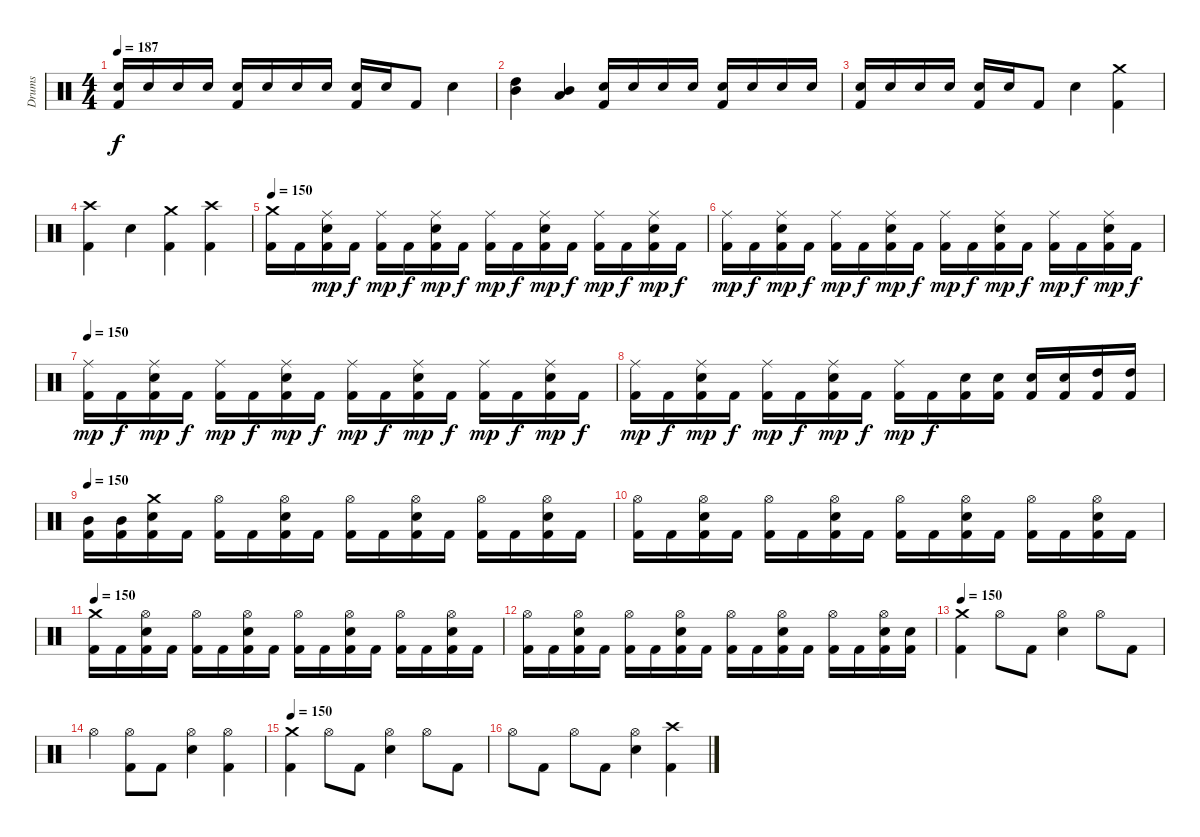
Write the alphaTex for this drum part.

\track ("Drums" "Drums") {instrument percussion}
\staff {score}
\articulation defaults
\ts (4 4)
\tempo 187
\clef neutral
\ks c
("Electric Snare (hit)" "Kick (hit) 2").16{dy f} "Electric Snare (hit)".16 "Electric Snare (hit)".16 "Electric Snare (hit)".16 ("Electric Snare (hit)" "Kick (hit) 2").16 "Electric Snare (hit)".16 "Electric Snare (hit)".16 "Electric Snare (hit)".16 ("Electric Snare (hit)" "Kick (hit) 2").16 "Electric Snare (hit)".16 "Kick (hit) 2".8 "Electric Snare (hit)".4 |
("High Tom (hit)" "Mid Tom (hit)").4 ("Mid Tom (hit)" "Low Tom (hit)").4 ("Electric Snare (hit)" "Kick (hit) 2").16 "Electric Snare (hit)".16 "Electric Snare (hit)".16 "Electric Snare (hit)".16 ("Electric Snare (hit)" "Kick (hit) 2").16 "Electric Snare (hit)".16 "Electric Snare (hit)".16 "Electric Snare (hit)".16 |
("Electric Snare (hit)" "Kick (hit) 2").16 "Electric Snare (hit)".16 "Electric Snare (hit)".16 "Electric Snare (hit)".16 ("Electric Snare (hit)" "Kick (hit) 2").16 "Electric Snare (hit)".16 "Kick (hit) 2".8 "Electric Snare (hit)".4 ("Crash medium (hit)" "Kick (hit) 2").4 |
("Crash high (hit)" "Kick (hit) 2").4 "Electric Snare (hit)".4 ("Crash medium (hit)" "Kick (hit) 2").4 ("Crash high (hit)" "Kick (hit) 2").4 |
\tempo 150
("Crash medium (hit)" "Kick (hit) 2").16 "Kick (hit) 2".16 ("Ride (middle)" "Electric Snare (hit)" "Kick (hit) 2").16{dy mp} "Kick (hit) 2".16{dy f} ("Ride (middle)" "Kick (hit) 2").16{dy mp} "Kick (hit) 2".16{dy f} ("Ride (middle)" "Electric Snare (hit)" "Kick (hit) 2").16{dy mp} "Kick (hit) 2".16{dy f} ("Ride (middle)" "Kick (hit) 2").16{dy mp} "Kick (hit) 2".16{dy f} ("Ride (middle)" "Electric Snare (hit)" "Kick (hit) 2").16{dy mp} "Kick (hit) 2".16{dy f} ("Ride (middle)" "Kick (hit) 2").16{dy mp} "Kick (hit) 2".16{dy f} ("Ride (middle)" "Electric Snare (hit)" "Kick (hit) 2").16{dy mp} "Kick (hit) 2".16{dy f} |
("Ride (middle)" "Kick (hit) 2").16{dy mp} "Kick (hit) 2".16{dy f} ("Ride (middle)" "Electric Snare (hit)" "Kick (hit) 2").16{dy mp} "Kick (hit) 2".16{dy f} ("Ride (middle)" "Kick (hit) 2").16{dy mp} "Kick (hit) 2".16{dy f} ("Ride (middle)" "Electric Snare (hit)" "Kick (hit) 2").16{dy mp} "Kick (hit) 2".16{dy f} ("Ride (middle)" "Kick (hit) 2").16{dy mp} "Kick (hit) 2".16{dy f} ("Ride (middle)" "Electric Snare (hit)" "Kick (hit) 2").16{dy mp} "Kick (hit) 2".16{dy f} ("Ride (middle)" "Kick (hit) 2").16{dy mp} "Kick (hit) 2".16{dy f} ("Ride (middle)" "Electric Snare (hit)" "Kick (hit) 2").16{dy mp} "Kick (hit) 2".16{dy f} |
\tempo 150
("Ride (middle)" "Kick (hit) 2").16{dy mp} "Kick (hit) 2".16{dy f} ("Ride (middle)" "Electric Snare (hit)" "Kick (hit) 2").16{dy mp} "Kick (hit) 2".16{dy f} ("Ride (middle)" "Kick (hit) 2").16{dy mp} "Kick (hit) 2".16{dy f} ("Ride (middle)" "Electric Snare (hit)" "Kick (hit) 2").16{dy mp} "Kick (hit) 2".16{dy f} ("Ride (middle)" "Kick (hit) 2").16{dy mp} "Kick (hit) 2".16{dy f} ("Ride (middle)" "Electric Snare (hit)" "Kick (hit) 2").16{dy mp} "Kick (hit) 2".16{dy f} ("Ride (middle)" "Kick (hit) 2").16{dy mp} "Kick (hit) 2".16{dy f} ("Ride (middle)" "Electric Snare (hit)" "Kick (hit) 2").16{dy mp} "Kick (hit) 2".16{dy f} |
("Ride (middle)" "Kick (hit) 2").16{dy mp} "Kick (hit) 2".16{dy f} ("Ride (middle)" "Electric Snare (hit)" "Kick (hit) 2").16{dy mp} "Kick (hit) 2".16{dy f} ("Ride (middle)" "Kick (hit) 2").16{dy mp} "Kick (hit) 2".16{dy f} ("Ride (middle)" "Electric Snare (hit)" "Kick (hit) 2").16{dy mp} "Kick (hit) 2".16{dy f} ("Ride (middle)" "Kick (hit) 2").16{dy mp} "Kick (hit) 2".16{dy f} ("Electric Snare (hit)" "Kick (hit) 2").16 ("Electric Snare (hit)" "Kick (hit) 2").16 ("Electric Snare (hit)" "Kick (hit) 2").16 ("Electric Snare (hit)" "Kick (hit) 2").16 ("High Tom (hit)" "Kick (hit) 2").16 ("High Tom (hit)" "Kick (hit) 2").16 |
\tempo 150
("Mid Tom (hit)" "Kick (hit) 2").16 ("Mid Tom (hit)" "Kick (hit) 2").16 ("Crash medium (hit)" "Electric Snare (hit)" "Kick (hit) 2").16 "Kick (hit) 2".16 ("Hi-Hat (open)" "Kick (hit) 2").16 "Kick (hit) 2".16 ("Hi-Hat (open)" "Electric Snare (hit)" "Kick (hit) 2").16 "Kick (hit) 2".16 ("Hi-Hat (open)" "Kick (hit) 2").16 "Kick (hit) 2".16 ("Hi-Hat (open)" "Electric Snare (hit)" "Kick (hit) 2").16 "Kick (hit) 2".16 ("Hi-Hat (open)" "Kick (hit) 2").16 "Kick (hit) 2".16 ("Hi-Hat (open)" "Electric Snare (hit)" "Kick (hit) 2").16 "Kick (hit) 2".16 |
("Hi-Hat (open)" "Kick (hit) 2").16 "Kick (hit) 2".16 ("Hi-Hat (open)" "Electric Snare (hit)" "Kick (hit) 2").16 "Kick (hit) 2".16 ("Hi-Hat (open)" "Kick (hit) 2").16 "Kick (hit) 2".16 ("Hi-Hat (open)" "Electric Snare (hit)" "Kick (hit) 2").16 "Kick (hit) 2".16 ("Hi-Hat (open)" "Kick (hit) 2").16 "Kick (hit) 2".16 ("Hi-Hat (open)" "Electric Snare (hit)" "Kick (hit) 2").16 "Kick (hit) 2".16 ("Hi-Hat (open)" "Kick (hit) 2").16 "Kick (hit) 2".16 ("Hi-Hat (open)" "Electric Snare (hit)" "Kick (hit) 2").16 "Kick (hit) 2".16 |
\tempo 150
("Crash medium (hit)" "Kick (hit) 2").16 "Kick (hit) 2".16 ("Hi-Hat (open)" "Electric Snare (hit)" "Kick (hit) 2").16 "Kick (hit) 2".16 ("Hi-Hat (open)" "Kick (hit) 2").16 "Kick (hit) 2".16 ("Hi-Hat (open)" "Electric Snare (hit)" "Kick (hit) 2").16 "Kick (hit) 2".16 ("Hi-Hat (open)" "Kick (hit) 2").16 "Kick (hit) 2".16 ("Hi-Hat (open)" "Electric Snare (hit)" "Kick (hit) 2").16 "Kick (hit) 2".16 ("Hi-Hat (open)" "Kick (hit) 2").16 "Kick (hit) 2".16 ("Hi-Hat (open)" "Electric Snare (hit)" "Kick (hit) 2").16 "Kick (hit) 2".16 |
("Hi-Hat (open)" "Kick (hit) 2").16 "Kick (hit) 2".16 ("Hi-Hat (open)" "Electric Snare (hit)" "Kick (hit) 2").16 "Kick (hit) 2".16 ("Hi-Hat (open)" "Kick (hit) 2").16 "Kick (hit) 2".16 ("Hi-Hat (open)" "Electric Snare (hit)" "Kick (hit) 2").16 "Kick (hit) 2".16 ("Hi-Hat (open)" "Kick (hit) 2").16 "Kick (hit) 2".16 ("Hi-Hat (open)" "Electric Snare (hit)" "Kick (hit) 2").16 "Kick (hit) 2".16 ("Hi-Hat (open)" "Kick (hit) 2").16 "Kick (hit) 2".16 ("Hi-Hat (open)" "Electric Snare (hit)" "Kick (hit) 2").16 ("Electric Snare (hit)" "Kick (hit) 2").16 |
\tempo 150
("Crash medium (hit)" "Kick (hit) 2").4 "Hi-Hat (open)".8 "Kick (hit) 2".8 ("Hi-Hat (open)" "Electric Snare (hit)").4 "Hi-Hat (open)".8 "Kick (hit) 2".8 |
"Hi-Hat (open)".4 ("Hi-Hat (open)" "Kick (hit) 2").8 "Kick (hit) 2".8 ("Hi-Hat (open)" "Electric Snare (hit)").4 ("Hi-Hat (open)" "Kick (hit) 2").4 |
\tempo 150
("Crash medium (hit)" "Kick (hit) 2").4 "Hi-Hat (open)".8 "Kick (hit) 2".8 ("Hi-Hat (open)" "Electric Snare (hit)").4 "Hi-Hat (open)".8 "Kick (hit) 2".8 |
"Hi-Hat (open)".8 "Kick (hit) 2".8 "Hi-Hat (open)".8 "Kick (hit) 2".8 ("Hi-Hat (open)" "Electric Snare (hit)").4 ("Crash high (hit)" "Kick (hit) 2").4
